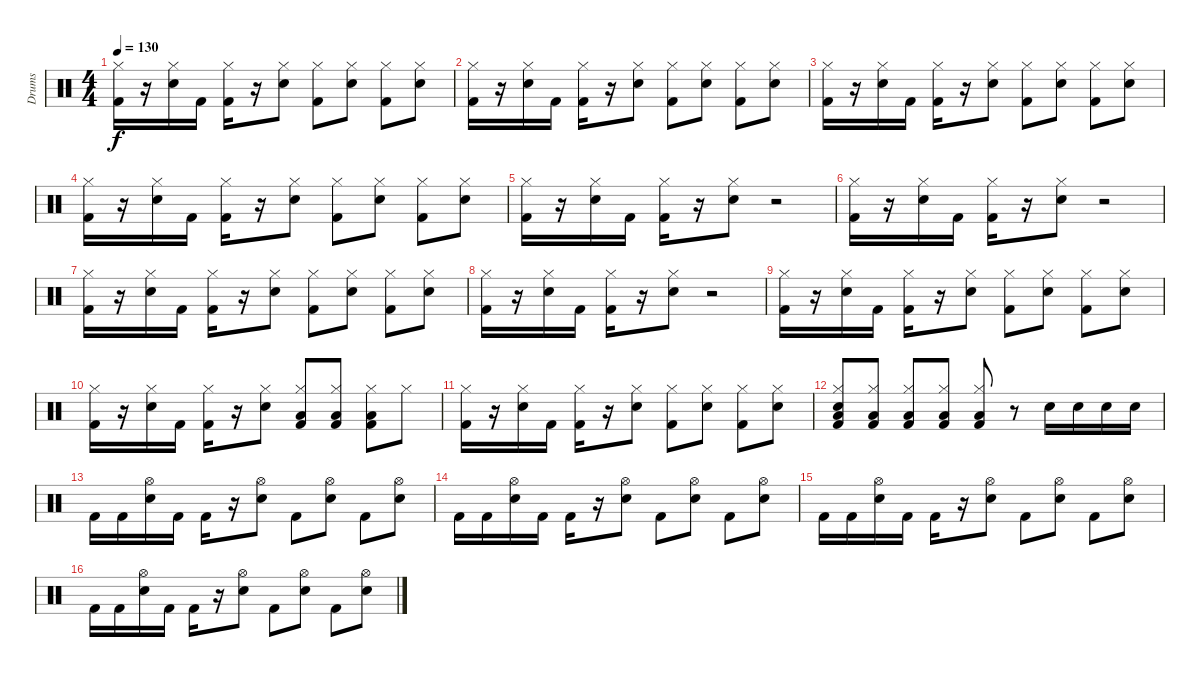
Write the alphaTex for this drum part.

\track ("Drums" "Drums") {instrument percussion}
\staff {score}
\articulation defaults
\ts (4 4)
\tempo 130
\clef neutral
\ks c
("Kick (hit) 2" "Hi-Hat (closed)").16{dy f} r.16 ("Snare (hit) 2" "Hi-Hat (closed)").16 "Kick (hit) 2".16 ("Kick (hit) 2" "Hi-Hat (closed)").16 r.16 ("Snare (hit) 2" "Hi-Hat (closed)").8 ("Kick (hit) 2" "Hi-Hat (closed)").8 ("Snare (hit) 2" "Hi-Hat (closed)").8 ("Kick (hit) 2" "Hi-Hat (closed)").8 ("Snare (hit) 2" "Hi-Hat (closed)").8 |
("Kick (hit) 2" "Hi-Hat (closed)").16 r.16 ("Snare (hit) 2" "Hi-Hat (closed)").16 "Kick (hit) 2".16 ("Kick (hit) 2" "Hi-Hat (closed)").16 r.16 ("Snare (hit) 2" "Hi-Hat (closed)").8 ("Kick (hit) 2" "Hi-Hat (closed)").8 ("Snare (hit) 2" "Hi-Hat (closed)").8 ("Kick (hit) 2" "Hi-Hat (closed)").8 ("Snare (hit) 2" "Hi-Hat (closed)").8 |
("Kick (hit) 2" "Hi-Hat (closed)").16 r.16 ("Snare (hit) 2" "Hi-Hat (closed)").16 "Kick (hit) 2".16 ("Kick (hit) 2" "Hi-Hat (closed)").16 r.16 ("Snare (hit) 2" "Hi-Hat (closed)").8 ("Kick (hit) 2" "Hi-Hat (closed)").8 ("Snare (hit) 2" "Hi-Hat (closed)").8 ("Kick (hit) 2" "Hi-Hat (closed)").8 ("Snare (hit) 2" "Hi-Hat (closed)").8 |
("Kick (hit) 2" "Hi-Hat (closed)").16 r.16 ("Snare (hit) 2" "Hi-Hat (closed)").16 "Kick (hit) 2".16 ("Kick (hit) 2" "Hi-Hat (closed)").16 r.16 ("Snare (hit) 2" "Hi-Hat (closed)").8 ("Kick (hit) 2" "Hi-Hat (closed)").8 ("Snare (hit) 2" "Hi-Hat (closed)").8 ("Kick (hit) 2" "Hi-Hat (closed)").8 ("Snare (hit) 2" "Hi-Hat (closed)").8 |
("Kick (hit) 2" "Hi-Hat (closed)").16 r.16 ("Snare (hit) 2" "Hi-Hat (closed)").16 "Kick (hit) 2".16 ("Kick (hit) 2" "Hi-Hat (closed)").16 r.16 ("Snare (hit) 2" "Hi-Hat (closed)").8 r.2 |
("Kick (hit) 2" "Hi-Hat (closed)").16 r.16 ("Snare (hit) 2" "Hi-Hat (closed)").16 "Kick (hit) 2".16 ("Kick (hit) 2" "Hi-Hat (closed)").16 r.16 ("Snare (hit) 2" "Hi-Hat (closed)").8 r.2 |
("Kick (hit) 2" "Hi-Hat (closed)").16 r.16 ("Snare (hit) 2" "Hi-Hat (closed)").16 "Kick (hit) 2".16 ("Kick (hit) 2" "Hi-Hat (closed)").16 r.16 ("Snare (hit) 2" "Hi-Hat (closed)").8 ("Kick (hit) 2" "Hi-Hat (closed)").8 ("Snare (hit) 2" "Hi-Hat (closed)").8 ("Kick (hit) 2" "Hi-Hat (closed)").8 ("Snare (hit) 2" "Hi-Hat (closed)").8 |
("Kick (hit) 2" "Hi-Hat (closed)").16 r.16 ("Snare (hit) 2" "Hi-Hat (closed)").16 "Kick (hit) 2".16 ("Kick (hit) 2" "Hi-Hat (closed)").16 r.16 ("Snare (hit) 2" "Hi-Hat (closed)").8 r.2 |
("Kick (hit) 2" "Hi-Hat (closed)").16 r.16 ("Snare (hit) 2" "Hi-Hat (closed)").16 "Kick (hit) 2".16 ("Kick (hit) 2" "Hi-Hat (closed)").16 r.16 ("Snare (hit) 2" "Hi-Hat (closed)").8 ("Kick (hit) 2" "Hi-Hat (closed)").8 ("Snare (hit) 2" "Hi-Hat (closed)").8 ("Kick (hit) 2" "Hi-Hat (closed)").8 ("Snare (hit) 2" "Hi-Hat (closed)").8 |
("Kick (hit) 2" "Hi-Hat (closed)").16 r.16 ("Snare (hit) 2" "Hi-Hat (closed)").16 "Kick (hit) 2".16 ("Kick (hit) 2" "Hi-Hat (closed)").16 r.16 ("Snare (hit) 2" "Hi-Hat (closed)").8 ("Kick (hit) 2" "Low Floor Tom (hit)" "Hi-Hat (closed)").8 ("Kick (hit) 2" "Low Floor Tom (hit)" "Hi-Hat (closed)").8 ("Kick (hit) 2" "Low Floor Tom (hit)" "Hi-Hat (closed)").8 "Hi-Hat (closed)".8 |
("Kick (hit) 2" "Hi-Hat (closed)").16 r.16 ("Snare (hit) 2" "Hi-Hat (closed)").16 "Kick (hit) 2".16 ("Kick (hit) 2" "Hi-Hat (closed)").16 r.16 ("Snare (hit) 2" "Hi-Hat (closed)").8 ("Kick (hit) 2" "Hi-Hat (closed)").8 ("Snare (hit) 2" "Hi-Hat (closed)").8 ("Kick (hit) 2" "Hi-Hat (closed)").8 ("Snare (hit) 2" "Hi-Hat (closed)").8 |
("Kick (hit) 2" "Snare (hit) 2" "Low Floor Tom (hit)" "Hi-Hat (closed)").8 ("Kick (hit) 2" "Low Floor Tom (hit)" "Hi-Hat (closed)").8 ("Kick (hit) 2" "Low Floor Tom (hit)" "Hi-Hat (closed)").8 ("Kick (hit) 2" "Low Floor Tom (hit)" "Hi-Hat (closed)").8 ("Kick (hit) 2" "Low Floor Tom (hit)" "Hi-Hat (closed)").8 r.8 "Snare (hit) 2".16 "Snare (hit) 2".16 "Snare (hit) 2".16 "Snare (hit) 2".16 |
"Kick (hit) 2".16 "Kick (hit) 2".16 ("Snare (hit) 2" "Hi-Hat (open)").16 "Kick (hit) 2".16 "Kick (hit) 2".16 r.16 ("Snare (hit) 2" "Hi-Hat (open)").8 "Kick (hit) 2".8 ("Snare (hit) 2" "Hi-Hat (open)").8 "Kick (hit) 2".8 ("Snare (hit) 2" "Hi-Hat (open)").8 |
"Kick (hit) 2".16 "Kick (hit) 2".16 ("Snare (hit) 2" "Hi-Hat (open)").16 "Kick (hit) 2".16 "Kick (hit) 2".16 r.16 ("Snare (hit) 2" "Hi-Hat (open)").8 "Kick (hit) 2".8 ("Snare (hit) 2" "Hi-Hat (open)").8 "Kick (hit) 2".8 ("Snare (hit) 2" "Hi-Hat (open)").8 |
"Kick (hit) 2".16 "Kick (hit) 2".16 ("Snare (hit) 2" "Hi-Hat (open)").16 "Kick (hit) 2".16 "Kick (hit) 2".16 r.16 ("Snare (hit) 2" "Hi-Hat (open)").8 "Kick (hit) 2".8 ("Snare (hit) 2" "Hi-Hat (open)").8 "Kick (hit) 2".8 ("Snare (hit) 2" "Hi-Hat (open)").8 |
"Kick (hit) 2".16 "Kick (hit) 2".16 ("Snare (hit) 2" "Hi-Hat (open)").16 "Kick (hit) 2".16 "Kick (hit) 2".16 r.16 ("Snare (hit) 2" "Hi-Hat (open)").8 "Kick (hit) 2".8 ("Snare (hit) 2" "Hi-Hat (open)").8 "Kick (hit) 2".8 ("Snare (hit) 2" "Hi-Hat (open)").8
